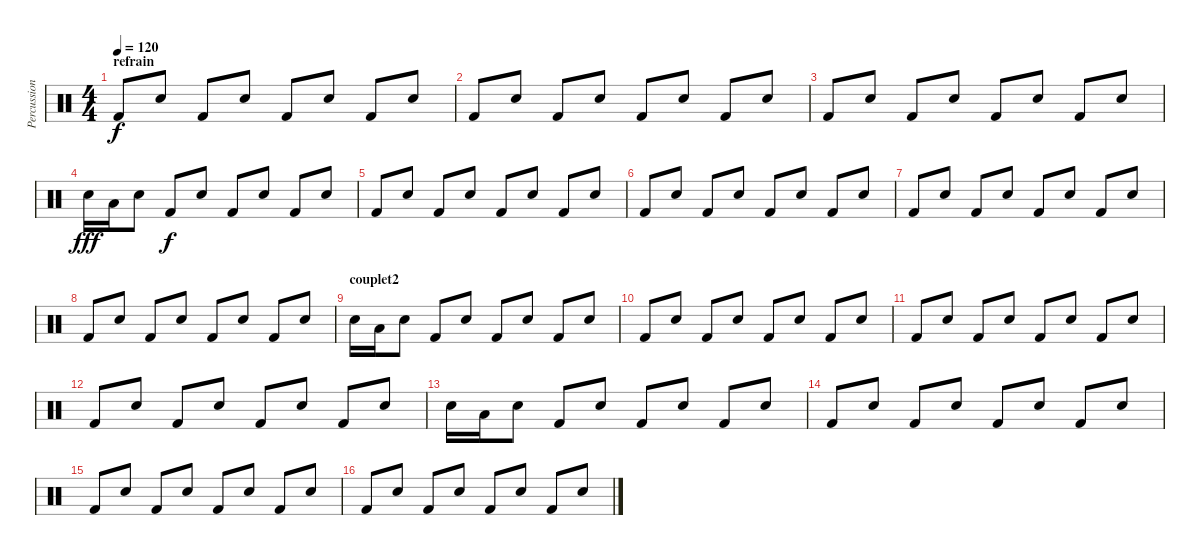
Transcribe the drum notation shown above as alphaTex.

\track ("Percussions-Vlad" "Percussion") {instrument percussion}
\staff {score}
\articulation defaults
\ts (4 4)
\section ("" "refrain")
\tempo 120
\clef neutral
\ks c "Kick (hit) 2".8{dy f} "Electric Snare (hit)".8 "Kick (hit) 2".8 "Electric Snare (hit)".8 "Kick (hit) 2".8 "Electric Snare (hit)".8 "Kick (hit) 2".8 "Electric Snare (hit)".8
|
"Kick (hit) 2".8 "Electric Snare (hit)".8 "Kick (hit) 2".8 "Electric Snare (hit)".8 "Kick (hit) 2".8 "Electric Snare (hit)".8 "Kick (hit) 2".8 "Electric Snare (hit)".8 |
"Kick (hit) 2".8 "Electric Snare (hit)".8 "Kick (hit) 2".8 "Electric Snare (hit)".8 "Kick (hit) 2".8 "Electric Snare (hit)".8 "Kick (hit) 2".8 "Electric Snare (hit)".8 |
"Electric Snare (hit)".16{dy fff} "Low Tom (hit)".16 "Electric Snare (hit)".8 "Kick (hit) 2".8{dy f} "Electric Snare (hit)".8 "Kick (hit) 2".8 "Electric Snare (hit)".8 "Kick (hit) 2".8 "Electric Snare (hit)".8 |
"Kick (hit) 2".8 "Electric Snare (hit)".8 "Kick (hit) 2".8 "Electric Snare (hit)".8 "Kick (hit) 2".8 "Electric Snare (hit)".8 "Kick (hit) 2".8 "Electric Snare (hit)".8 |
"Kick (hit) 2".8 "Electric Snare (hit)".8 "Kick (hit) 2".8 "Electric Snare (hit)".8 "Kick (hit) 2".8 "Electric Snare (hit)".8 "Kick (hit) 2".8 "Electric Snare (hit)".8 |
"Kick (hit) 2".8 "Electric Snare (hit)".8 "Kick (hit) 2".8 "Electric Snare (hit)".8 "Kick (hit) 2".8 "Electric Snare (hit)".8 "Kick (hit) 2".8 "Electric Snare (hit)".8 |
"Kick (hit) 2".8 "Electric Snare (hit)".8 "Kick (hit) 2".8 "Electric Snare (hit)".8 "Kick (hit) 2".8 "Electric Snare (hit)".8 "Kick (hit) 2".8 "Electric Snare (hit)".8 |
\section ("" "couplet2")
"Electric Snare (hit)".16 "Low Tom (hit)".16 "Electric Snare (hit)".8 "Kick (hit) 2".8 "Electric Snare (hit)".8 "Kick (hit) 2".8 "Electric Snare (hit)".8 "Kick (hit) 2".8 "Electric Snare (hit)".8 |
"Kick (hit) 2".8 "Electric Snare (hit)".8 "Kick (hit) 2".8 "Electric Snare (hit)".8 "Kick (hit) 2".8 "Electric Snare (hit)".8 "Kick (hit) 2".8 "Electric Snare (hit)".8 |
"Kick (hit) 2".8 "Electric Snare (hit)".8 "Kick (hit) 2".8 "Electric Snare (hit)".8 "Kick (hit) 2".8 "Electric Snare (hit)".8 "Kick (hit) 2".8 "Electric Snare (hit)".8 |
"Kick (hit) 2".8 "Electric Snare (hit)".8 "Kick (hit) 2".8 "Electric Snare (hit)".8 "Kick (hit) 2".8 "Electric Snare (hit)".8 "Kick (hit) 2".8 "Electric Snare (hit)".8 |
"Electric Snare (hit)".16 "Low Tom (hit)".16 "Electric Snare (hit)".8 "Kick (hit) 2".8 "Electric Snare (hit)".8 "Kick (hit) 2".8 "Electric Snare (hit)".8 "Kick (hit) 2".8 "Electric Snare (hit)".8 |
"Kick (hit) 2".8 "Electric Snare (hit)".8 "Kick (hit) 2".8 "Electric Snare (hit)".8 "Kick (hit) 2".8 "Electric Snare (hit)".8 "Kick (hit) 2".8 "Electric Snare (hit)".8 |
"Kick (hit) 2".8 "Electric Snare (hit)".8 "Kick (hit) 2".8 "Electric Snare (hit)".8 "Kick (hit) 2".8 "Electric Snare (hit)".8 "Kick (hit) 2".8 "Electric Snare (hit)".8 |
"Kick (hit) 2".8 "Electric Snare (hit)".8 "Kick (hit) 2".8 "Electric Snare (hit)".8 "Kick (hit) 2".8 "Electric Snare (hit)".8 "Kick (hit) 2".8 "Electric Snare (hit)".8
